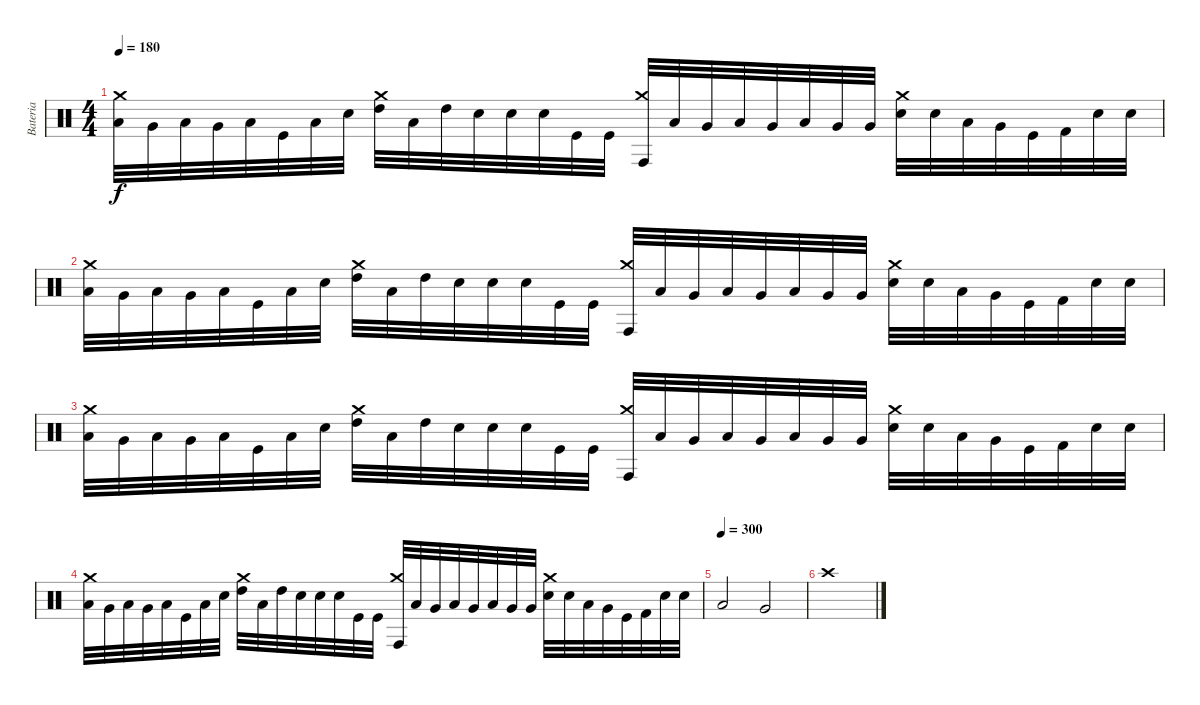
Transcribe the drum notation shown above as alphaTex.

\track ("Bateria" "Bateria") {instrument percussion}
\staff {score}
\articulation defaults
\ts (4 4)
\tempo 180
\clef neutral
\ks c
("Low Tom (hit)" "Crash medium (hit)").32{dy f} "Very Low Tom (hit)".32 "Low Tom (hit)".32 "Very Low Tom (hit)".32 "Low Tom (hit)".32 "Kick (hit)".32 "Low Tom (hit)".32 "Electric Snare (hit)".32 ("High Tom (hit)" "Crash medium (hit)").32 "Low Tom (hit)".32 "High Tom (hit)".32 "Snare (hit) 2".32 "Electric Snare (hit)".32 "Electric Snare (hit)".32 "Kick (hit)".32 "Kick (hit)".32 ("Conga high (hit)" "Crash medium (hit)").32 "Low Tom (hit)".32 "Very Low Tom (hit)".32 "Low Tom (hit)".32 "Very Low Tom (hit)".32 "Low Tom (hit)".32 "Very Low Tom (hit)".32 "Very Low Tom (hit)".32 ("Electric Snare (hit)" "Crash medium (hit)").32 "Snare (hit) 2".32 "Low Tom (hit)".32 "Very Low Tom (hit)".32 "Kick (hit)".32 "Kick (hit) 2".32 "Snare (hit) 2".32 "Snare (hit) 2".32 |
("Low Tom (hit)" "Crash medium (hit)").32 "Very Low Tom (hit)".32 "Low Tom (hit)".32 "Very Low Tom (hit)".32 "Low Tom (hit)".32 "Kick (hit)".32 "Low Tom (hit)".32 "Electric Snare (hit)".32 ("High Tom (hit)" "Crash medium (hit)").32 "Low Tom (hit)".32 "High Tom (hit)".32 "Snare (hit) 2".32 "Electric Snare (hit)".32 "Electric Snare (hit)".32 "Kick (hit)".32 "Kick (hit)".32 ("Conga high (hit)" "Crash medium (hit)").32 "Low Tom (hit)".32 "Very Low Tom (hit)".32 "Low Tom (hit)".32 "Very Low Tom (hit)".32 "Low Tom (hit)".32 "Very Low Tom (hit)".32 "Very Low Tom (hit)".32 ("Electric Snare (hit)" "Crash medium (hit)").32 "Snare (hit) 2".32 "Low Tom (hit)".32 "Very Low Tom (hit)".32 "Kick (hit)".32 "Kick (hit) 2".32 "Snare (hit) 2".32 "Snare (hit) 2".32 |
("Low Tom (hit)" "Crash medium (hit)").32 "Very Low Tom (hit)".32 "Low Tom (hit)".32 "Very Low Tom (hit)".32 "Low Tom (hit)".32 "Kick (hit)".32 "Low Tom (hit)".32 "Electric Snare (hit)".32 ("High Tom (hit)" "Crash medium (hit)").32 "Low Tom (hit)".32 "High Tom (hit)".32 "Snare (hit) 2".32 "Electric Snare (hit)".32 "Electric Snare (hit)".32 "Kick (hit)".32 "Kick (hit)".32 ("Conga high (hit)" "Crash medium (hit)").32 "Low Tom (hit)".32 "Very Low Tom (hit)".32 "Low Tom (hit)".32 "Very Low Tom (hit)".32 "Low Tom (hit)".32 "Very Low Tom (hit)".32 "Very Low Tom (hit)".32 ("Electric Snare (hit)" "Crash medium (hit)").32 "Snare (hit) 2".32 "Low Tom (hit)".32 "Very Low Tom (hit)".32 "Kick (hit)".32 "Kick (hit) 2".32 "Snare (hit) 2".32 "Snare (hit) 2".32 |
("Low Tom (hit)" "Crash medium (hit)").32 "Very Low Tom (hit)".32 "Low Tom (hit)".32 "Very Low Tom (hit)".32 "Low Tom (hit)".32 "Kick (hit)".32 "Low Tom (hit)".32 "Electric Snare (hit)".32 ("High Tom (hit)" "Crash medium (hit)").32 "Low Tom (hit)".32 "High Tom (hit)".32 "Snare (hit) 2".32 "Electric Snare (hit)".32 "Electric Snare (hit)".32 "Kick (hit)".32 "Kick (hit)".32 ("Conga high (hit)" "Crash medium (hit)").32 "Low Tom (hit)".32 "Very Low Tom (hit)".32 "Low Tom (hit)".32 "Very Low Tom (hit)".32 "Low Tom (hit)".32 "Very Low Tom (hit)".32 "Very Low Tom (hit)".32 ("Electric Snare (hit)" "Crash medium (hit)").32 "Snare (hit) 2".32 "Low Tom (hit)".32 "Very Low Tom (hit)".32 "Kick (hit)".32 "Kick (hit) 2".32 "Snare (hit) 2".32 "Snare (hit) 2".32 |
\tempo (300)
"Low Tom (hit)".2 "Very Low Tom (hit)".2 |
"Crash high (hit)".1
